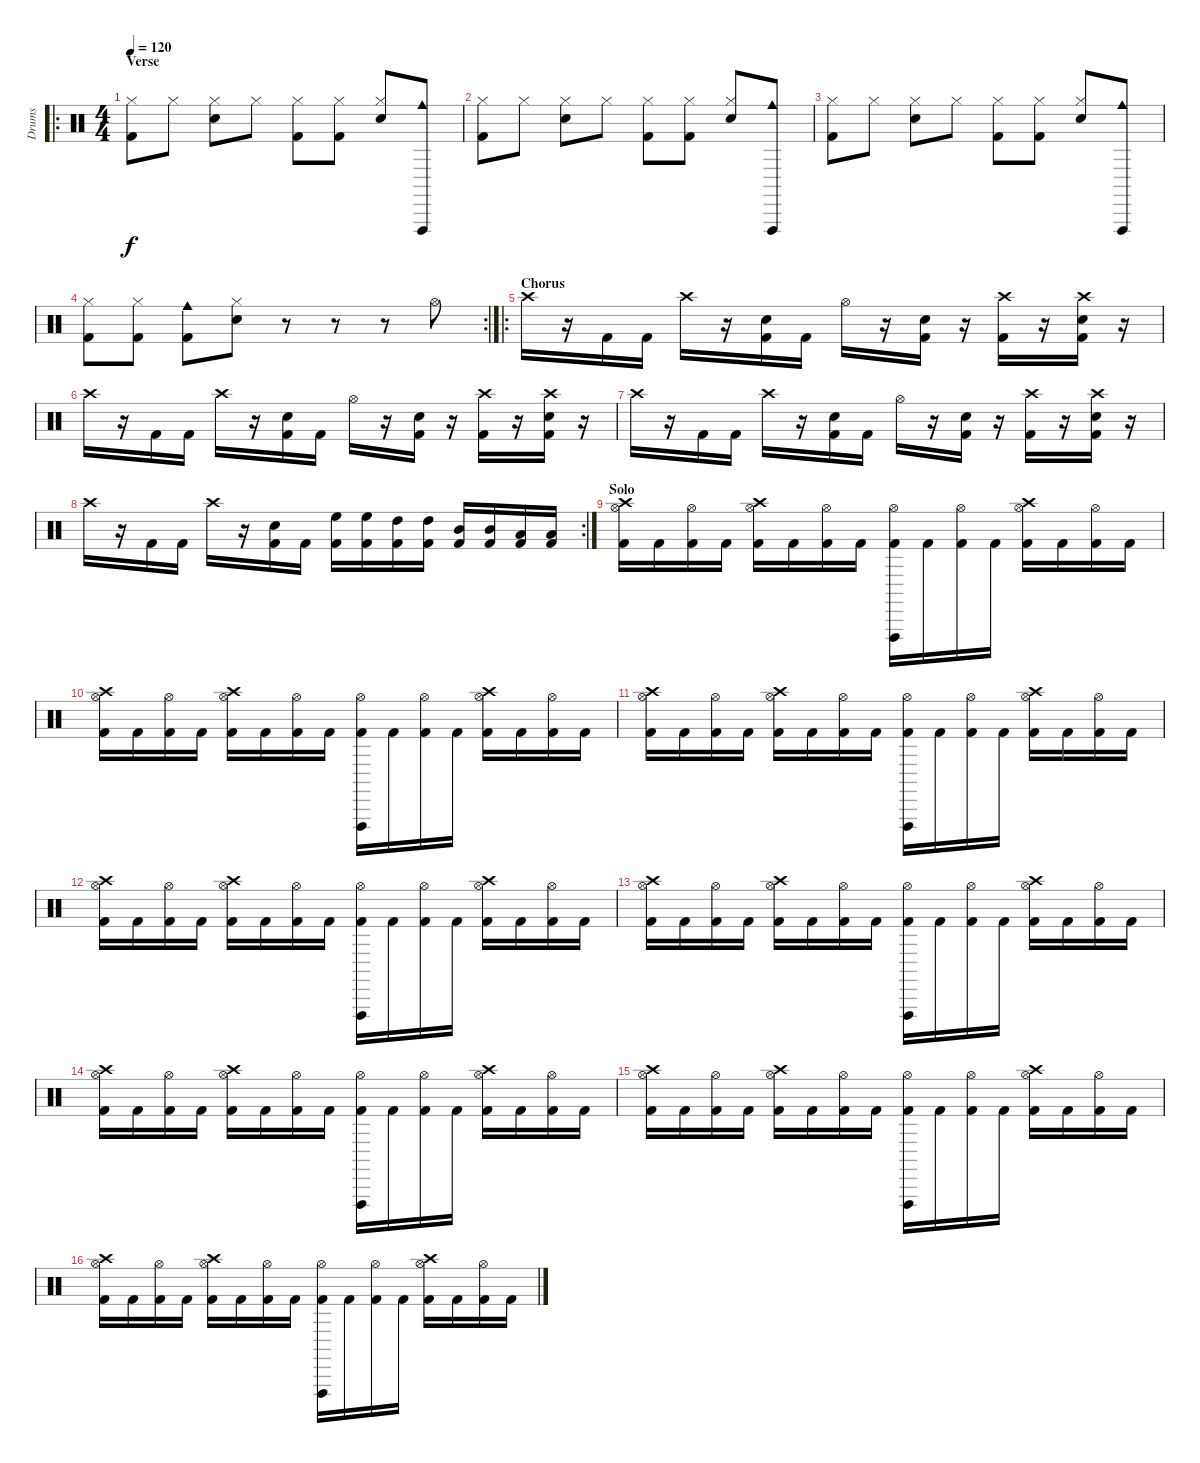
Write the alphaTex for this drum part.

\track ("Drums" "Drums") {instrument percussion}
\staff {score}
\articulation defaults
\ro
\ts (4 4)
\section ("" "Verse")
\tempo 120
\clef neutral
\ks c
("Hi-Hat (closed)" "Kick (hit) 2").8{dy f} "Hi-Hat (closed)".8 ("Hi-Hat (closed)" "Electric Snare (hit)").8 "Hi-Hat (closed)".8 ("Hi-Hat (closed)" "Kick (hit) 2").8 ("Hi-Hat (closed)" "Kick (hit) 2").8 ("Hi-Hat (closed)" "Electric Snare (hit)").8 ("Vibraslap (hit)" "Cowbell medium (hit)").8 |
("Hi-Hat (closed)" "Kick (hit) 2").8 "Hi-Hat (closed)".8 ("Hi-Hat (closed)" "Electric Snare (hit)").8 "Hi-Hat (closed)".8 ("Hi-Hat (closed)" "Kick (hit) 2").8 ("Hi-Hat (closed)" "Kick (hit) 2").8 ("Hi-Hat (closed)" "Electric Snare (hit)").8 ("Vibraslap (hit)" "Cowbell medium (hit)").8 |
("Hi-Hat (closed)" "Kick (hit) 2").8 "Hi-Hat (closed)".8 ("Hi-Hat (closed)" "Electric Snare (hit)").8 "Hi-Hat (closed)".8 ("Hi-Hat (closed)" "Kick (hit) 2").8 ("Hi-Hat (closed)" "Kick (hit) 2").8 ("Hi-Hat (closed)" "Electric Snare (hit)").8 ("Vibraslap (hit)" "Cowbell medium (hit)").8 |
\rc 2
("Hi-Hat (closed)" "Kick (hit) 2").8 ("Hi-Hat (closed)" "Kick (hit) 2").8 ("Cowbell medium (hit)" "Kick (hit) 2").8 ("Hi-Hat (closed)" "Electric Snare (hit)").8 r.8 r.8 r.8 "Hi-Hat (open)".8 |
\ro
\section ("" "Chorus")
"Crash high (hit)".16 r.16 "Kick (hit) 2".16 "Kick (hit) 2".16 "Crash high (hit)".16 r.16 ("Electric Snare (hit)" "Kick (hit) 2").16 "Kick (hit) 2".16 "Hi-Hat (open)".16 r.16 ("Electric Snare (hit)" "Kick (hit) 2").16 r.16 ("Crash high (hit)" "Kick (hit) 2").16 r.16 ("Crash high (hit)" "Electric Snare (hit)" "Kick (hit) 2").16 r.16 |
"Crash high (hit)".16 r.16 "Kick (hit) 2".16 "Kick (hit) 2".16 "Crash high (hit)".16 r.16 ("Electric Snare (hit)" "Kick (hit) 2").16 "Kick (hit) 2".16 "Hi-Hat (open)".16 r.16 ("Electric Snare (hit)" "Kick (hit) 2").16 r.16 ("Crash high (hit)" "Kick (hit) 2").16 r.16 ("Crash high (hit)" "Electric Snare (hit)" "Kick (hit) 2").16 r.16 |
"Crash high (hit)".16 r.16 "Kick (hit) 2".16 "Kick (hit) 2".16 "Crash high (hit)".16 r.16 ("Electric Snare (hit)" "Kick (hit) 2").16 "Kick (hit) 2".16 "Hi-Hat (open)".16 r.16 ("Electric Snare (hit)" "Kick (hit) 2").16 r.16 ("Crash high (hit)" "Kick (hit) 2").16 r.16 ("Crash high (hit)" "Electric Snare (hit)" "Kick (hit) 2").16 r.16 |
\rc 2 "Crash high (hit)".16
r.16 "Kick (hit) 2".16 "Kick (hit) 2".16 "Crash high (hit)".16 r.16 ("Electric Snare (hit)" "Kick (hit) 2").16 "Kick (hit) 2".16 ("High Floor Tom (hit)" "Kick (hit) 2").16 ("High Floor Tom (hit)" "Kick (hit) 2").16 ("High Tom (hit)" "Kick (hit) 2").16 ("High Tom (hit)" "Kick (hit) 2").16 ("Mid Tom (hit)" "Kick (hit) 2").16 ("Mid Tom (hit)" "Kick (hit) 2").16 ("Low Tom (hit)" "Kick (hit) 2").16 ("Low Tom (hit)" "Kick (hit) 2").16 |
\section ("" "Solo")
("Crash high (hit)" "Hi-Hat (open)" "Kick (hit) 2").16 "Kick (hit) 2".16 ("Hi-Hat (open)" "Kick (hit) 2").16 "Kick (hit) 2".16 ("Crash high (hit)" "Hi-Hat (open)" "Kick (hit) 2").16 "Kick (hit) 2".16 ("Hi-Hat (open)" "Kick (hit) 2").16 "Kick (hit) 2".16 ("Vibraslap (hit)" "Hi-Hat (open)" "Kick (hit) 2").16 "Kick (hit) 2".16 ("Hi-Hat (open)" "Kick (hit) 2").16 "Kick (hit) 2".16 ("Crash high (hit)" "Hi-Hat (open)" "Kick (hit) 2").16 "Kick (hit) 2".16 ("Hi-Hat (open)" "Kick (hit) 2").16 "Kick (hit) 2".16 |
("Crash high (hit)" "Hi-Hat (open)" "Kick (hit) 2").16 "Kick (hit) 2".16 ("Hi-Hat (open)" "Kick (hit) 2").16 "Kick (hit) 2".16 ("Crash high (hit)" "Hi-Hat (open)" "Kick (hit) 2").16 "Kick (hit) 2".16 ("Hi-Hat (open)" "Kick (hit) 2").16 "Kick (hit) 2".16 ("Vibraslap (hit)" "Hi-Hat (open)" "Kick (hit) 2").16 "Kick (hit) 2".16 ("Hi-Hat (open)" "Kick (hit) 2").16 "Kick (hit) 2".16 ("Crash high (hit)" "Hi-Hat (open)" "Kick (hit) 2").16 "Kick (hit) 2".16 ("Hi-Hat (open)" "Kick (hit) 2").16 "Kick (hit) 2".16 |
("Crash high (hit)" "Hi-Hat (open)" "Kick (hit) 2").16 "Kick (hit) 2".16 ("Hi-Hat (open)" "Kick (hit) 2").16 "Kick (hit) 2".16 ("Crash high (hit)" "Hi-Hat (open)" "Kick (hit) 2").16 "Kick (hit) 2".16 ("Hi-Hat (open)" "Kick (hit) 2").16 "Kick (hit) 2".16 ("Vibraslap (hit)" "Hi-Hat (open)" "Kick (hit) 2").16 "Kick (hit) 2".16 ("Hi-Hat (open)" "Kick (hit) 2").16 "Kick (hit) 2".16 ("Crash high (hit)" "Hi-Hat (open)" "Kick (hit) 2").16 "Kick (hit) 2".16 ("Hi-Hat (open)" "Kick (hit) 2").16 "Kick (hit) 2".16 |
("Crash high (hit)" "Hi-Hat (open)" "Kick (hit) 2").16 "Kick (hit) 2".16 ("Hi-Hat (open)" "Kick (hit) 2").16 "Kick (hit) 2".16 ("Crash high (hit)" "Hi-Hat (open)" "Kick (hit) 2").16 "Kick (hit) 2".16 ("Hi-Hat (open)" "Kick (hit) 2").16 "Kick (hit) 2".16 ("Vibraslap (hit)" "Hi-Hat (open)" "Kick (hit) 2").16 "Kick (hit) 2".16 ("Hi-Hat (open)" "Kick (hit) 2").16 "Kick (hit) 2".16 ("Crash high (hit)" "Hi-Hat (open)" "Kick (hit) 2").16 "Kick (hit) 2".16 ("Hi-Hat (open)" "Kick (hit) 2").16 "Kick (hit) 2".16 |
("Crash high (hit)" "Hi-Hat (open)" "Kick (hit) 2").16 "Kick (hit) 2".16 ("Hi-Hat (open)" "Kick (hit) 2").16 "Kick (hit) 2".16 ("Crash high (hit)" "Hi-Hat (open)" "Kick (hit) 2").16 "Kick (hit) 2".16 ("Hi-Hat (open)" "Kick (hit) 2").16 "Kick (hit) 2".16 ("Vibraslap (hit)" "Hi-Hat (open)" "Kick (hit) 2").16 "Kick (hit) 2".16 ("Hi-Hat (open)" "Kick (hit) 2").16 "Kick (hit) 2".16 ("Crash high (hit)" "Hi-Hat (open)" "Kick (hit) 2").16 "Kick (hit) 2".16 ("Hi-Hat (open)" "Kick (hit) 2").16 "Kick (hit) 2".16 |
("Crash high (hit)" "Hi-Hat (open)" "Kick (hit) 2").16 "Kick (hit) 2".16 ("Hi-Hat (open)" "Kick (hit) 2").16 "Kick (hit) 2".16 ("Crash high (hit)" "Hi-Hat (open)" "Kick (hit) 2").16 "Kick (hit) 2".16 ("Hi-Hat (open)" "Kick (hit) 2").16 "Kick (hit) 2".16 ("Vibraslap (hit)" "Hi-Hat (open)" "Kick (hit) 2").16 "Kick (hit) 2".16 ("Hi-Hat (open)" "Kick (hit) 2").16 "Kick (hit) 2".16 ("Crash high (hit)" "Hi-Hat (open)" "Kick (hit) 2").16 "Kick (hit) 2".16 ("Hi-Hat (open)" "Kick (hit) 2").16 "Kick (hit) 2".16 |
("Crash high (hit)" "Hi-Hat (open)" "Kick (hit) 2").16 "Kick (hit) 2".16 ("Hi-Hat (open)" "Kick (hit) 2").16 "Kick (hit) 2".16 ("Crash high (hit)" "Hi-Hat (open)" "Kick (hit) 2").16 "Kick (hit) 2".16 ("Hi-Hat (open)" "Kick (hit) 2").16 "Kick (hit) 2".16 ("Vibraslap (hit)" "Hi-Hat (open)" "Kick (hit) 2").16 "Kick (hit) 2".16 ("Hi-Hat (open)" "Kick (hit) 2").16 "Kick (hit) 2".16 ("Crash high (hit)" "Hi-Hat (open)" "Kick (hit) 2").16 "Kick (hit) 2".16 ("Hi-Hat (open)" "Kick (hit) 2").16 "Kick (hit) 2".16 |
("Crash high (hit)" "Hi-Hat (open)" "Kick (hit) 2").16 "Kick (hit) 2".16 ("Hi-Hat (open)" "Kick (hit) 2").16 "Kick (hit) 2".16 ("Crash high (hit)" "Hi-Hat (open)" "Kick (hit) 2").16 "Kick (hit) 2".16 ("Hi-Hat (open)" "Kick (hit) 2").16 "Kick (hit) 2".16 ("Vibraslap (hit)" "Hi-Hat (open)" "Kick (hit) 2").16 "Kick (hit) 2".16 ("Hi-Hat (open)" "Kick (hit) 2").16 "Kick (hit) 2".16 ("Crash high (hit)" "Hi-Hat (open)" "Kick (hit) 2").16 "Kick (hit) 2".16 ("Hi-Hat (open)" "Kick (hit) 2").16 "Kick (hit) 2".16
